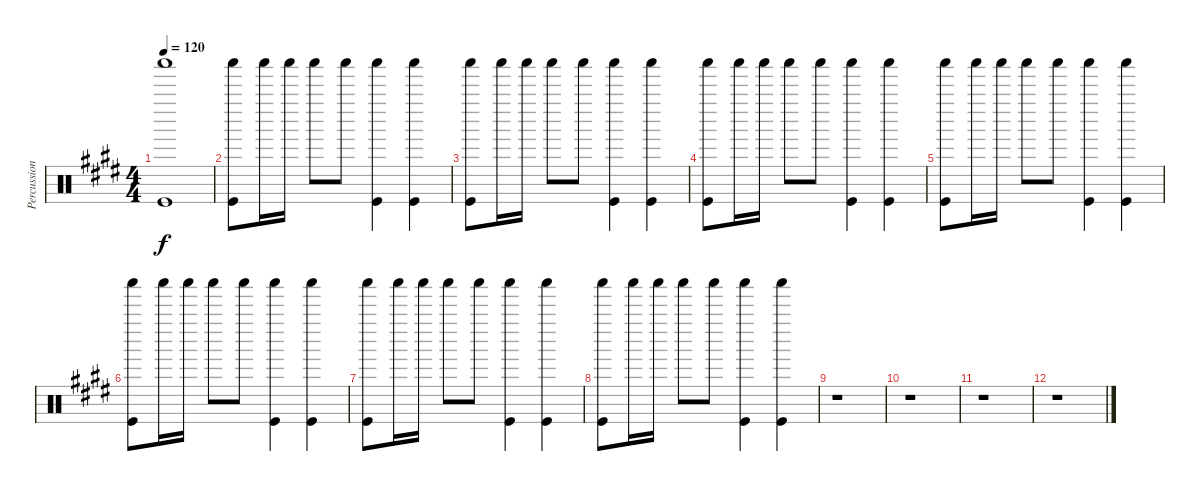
\track ("Percussions" "Percussion") {instrument percussion}
\staff {score}
\articulation defaults
\ts (4 4)
\tempo 120
\clef neutral
\ks e
("Shaker (hit)" "Kick (hit)").1{dy f} |
("Shaker (hit)" "Kick (hit)").8 "Shaker (hit)".16 "Shaker (hit)".16 "Shaker (hit)".8 "Shaker (hit)".8 ("Shaker (hit)" "Kick (hit)").4 ("Shaker (hit)" "Kick (hit)").4 |
("Shaker (hit)" "Kick (hit)").8 "Shaker (hit)".16 "Shaker (hit)".16 "Shaker (hit)".8 "Shaker (hit)".8 ("Shaker (hit)" "Kick (hit)").4 ("Shaker (hit)" "Kick (hit)").4 |
("Shaker (hit)" "Kick (hit)").8 "Shaker (hit)".16 "Shaker (hit)".16 "Shaker (hit)".8 "Shaker (hit)".8 ("Shaker (hit)" "Kick (hit)").4 ("Shaker (hit)" "Kick (hit)").4 |
("Shaker (hit)" "Kick (hit)").8 "Shaker (hit)".16 "Shaker (hit)".16 "Shaker (hit)".8 "Shaker (hit)".8 ("Shaker (hit)" "Kick (hit)").4 ("Shaker (hit)" "Kick (hit)").4 |
("Shaker (hit)" "Kick (hit)").8 "Shaker (hit)".16 "Shaker (hit)".16 "Shaker (hit)".8 "Shaker (hit)".8 ("Shaker (hit)" "Kick (hit)").4 ("Shaker (hit)" "Kick (hit)").4 |
("Shaker (hit)" "Kick (hit)").8 "Shaker (hit)".16 "Shaker (hit)".16 "Shaker (hit)".8 "Shaker (hit)".8 ("Shaker (hit)" "Kick (hit)").4 ("Shaker (hit)" "Kick (hit)").4 |
("Shaker (hit)" "Kick (hit)").8 "Shaker (hit)".16 "Shaker (hit)".16 "Shaker (hit)".8 "Shaker (hit)".8 ("Shaker (hit)" "Kick (hit)").4 ("Shaker (hit)" "Kick (hit)").4 |
r.1 |
r.1 |
r.1 |
r.1
